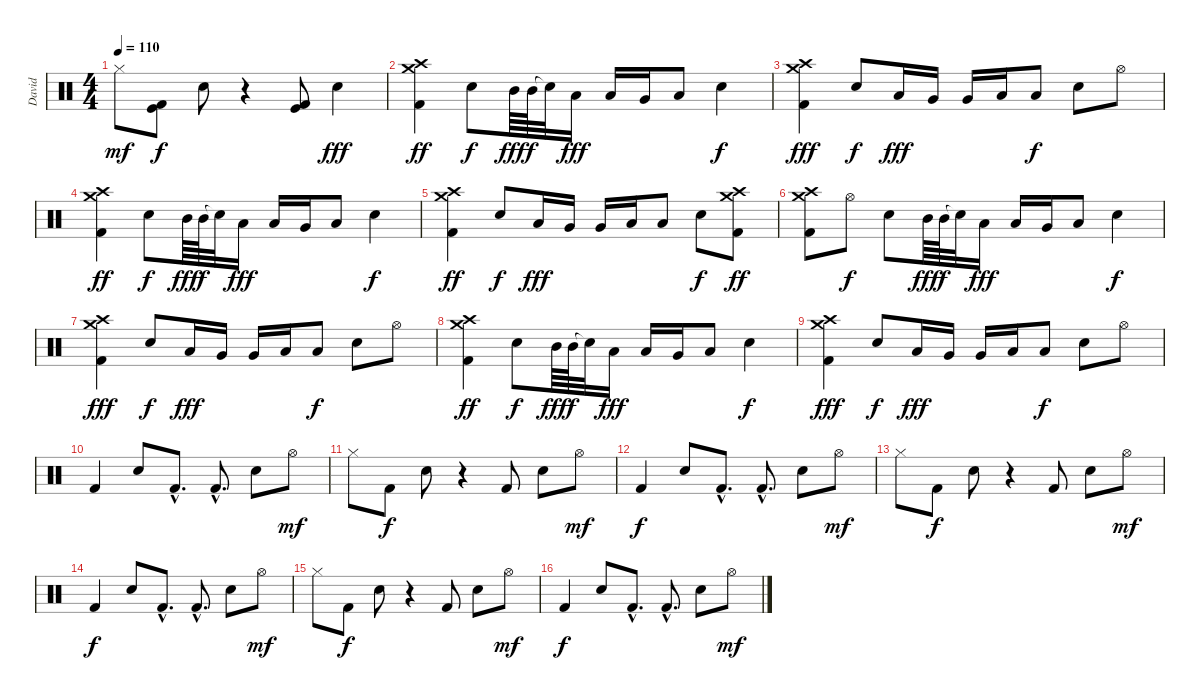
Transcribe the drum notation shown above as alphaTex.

\track ("David" "David") {instrument percussion}
\staff {score}
\articulation defaults
\ts (4 4)
\tempo 110
\clef neutral
\ks c "Hi-Hat (closed)".8{dy mf}
("Kick (hit)" "Kick (hit) 2").8{dy f} "Snare (hit) 2".8 r.4 ("Kick (hit)" "Kick (hit) 2").8 "Snare (hit) 2".4{dy fff} |
("Crash medium (hit)" "Crash high (hit)" "Kick (hit) 2").4{dy ff} "Snare (hit) 2".8{dy f} "Mid Tom (hit)".64{dy fff} "Mid Tom (hit)".64{dy f} "Snare (hit)"{t}.32 "Low Tom (hit)".16{dy fff} "Low Tom (hit)".16 "Very Low Tom (hit)".16 "Low Floor Tom (hit)".8 "Snare (hit) 2".4{dy f} |
("Crash medium (hit)" "Crash high (hit)" "Kick (hit) 2").4{dy fff} "Snare (hit) 2".8{dy f} "Low Tom (hit)".16{dy fff} "Very Low Tom (hit)".16 "Very Low Tom (hit)".16 "Low Floor Tom (hit)".16 "Low Floor Tom (hit)".8{dy f} "Snare (hit) 2".8 "Hi-Hat (open)".8 |
("Crash medium (hit)" "Crash high (hit)" "Kick (hit) 2").4{dy ff} "Snare (hit) 2".8{dy f} "Mid Tom (hit)".64{dy fff} "Mid Tom (hit)".64{dy f} "Snare (hit)"{t}.32 "Low Tom (hit)".16{dy fff} "Low Tom (hit)".16 "Very Low Tom (hit)".16 "Low Floor Tom (hit)".8 "Snare (hit) 2".4{dy f} |
("Crash medium (hit)" "Crash high (hit)" "Kick (hit) 2").4{dy ff} "Snare (hit) 2".8{dy f} "Low Tom (hit)".16{dy fff} "Very Low Tom (hit)".16 "Very Low Tom (hit)".16 "Low Floor Tom (hit)".16 "Low Floor Tom (hit)".8 "Snare (hit) 2".8{dy f} ("Crash medium (hit)" "Crash high (hit)" "Kick (hit) 2").8{dy ff} |
("Crash medium (hit)" "Crash high (hit)" "Kick (hit) 2").8 "Hi-Hat (open)".8{dy f} "Snare (hit) 2".8 "Mid Tom (hit)".64{dy fff} "Mid Tom (hit)".64{dy f} "Snare (hit)"{t}.32 "Low Tom (hit)".16{dy fff} "Low Tom (hit)".16 "Very Low Tom (hit)".16 "Low Floor Tom (hit)".8 "Snare (hit) 2".4{dy f} |
("Crash medium (hit)" "Crash high (hit)" "Kick (hit) 2").4{dy fff} "Snare (hit) 2".8{dy f} "Low Tom (hit)".16{dy fff} "Very Low Tom (hit)".16 "Very Low Tom (hit)".16 "Low Floor Tom (hit)".16 "Low Floor Tom (hit)".8{dy f} "Snare (hit) 2".8 "Hi-Hat (open)".8 |
("Crash medium (hit)" "Crash high (hit)" "Kick (hit) 2").4{dy ff} "Snare (hit) 2".8{dy f} "Mid Tom (hit)".64{dy fff} "Mid Tom (hit)".64{dy f} "Snare (hit)"{t}.32 "Low Tom (hit)".16{dy fff} "Low Tom (hit)".16 "Very Low Tom (hit)".16 "Low Floor Tom (hit)".8 "Snare (hit) 2".4{dy f} |
("Crash medium (hit)" "Crash high (hit)" "Kick (hit) 2").4{dy fff} "Snare (hit) 2".8{dy f} "Low Tom (hit)".16{dy fff} "Very Low Tom (hit)".16 "Very Low Tom (hit)".16 "Low Floor Tom (hit)".16 "Low Floor Tom (hit)".8{dy f} "Snare (hit) 2".8 "Hi-Hat (open)".8 |
"Kick (hit) 2".4 "Snare (hit) 2".8 "Kick (hit) 2"{hac}.8{d} "Kick (hit) 2"{hac}.8{d} "Snare (hit) 2".8 "Hi-Hat (open)".8{dy mf} |
"Hi-Hat (closed)".8 "Kick (hit) 2".8{dy f} "Snare (hit) 2".8 r.4 "Kick (hit) 2".8 "Snare (hit) 2".8 "Hi-Hat (open)".8{dy mf} |
"Kick (hit) 2".4{dy f} "Snare (hit) 2".8 "Kick (hit) 2"{hac}.8{d} "Kick (hit) 2"{hac}.8{d} "Snare (hit) 2".8 "Hi-Hat (open)".8{dy mf} |
"Hi-Hat (closed)".8 "Kick (hit) 2".8{dy f} "Snare (hit) 2".8 r.4 "Kick (hit) 2".8 "Snare (hit) 2".8 "Hi-Hat (open)".8{dy mf} |
"Kick (hit) 2".4{dy f} "Snare (hit) 2".8 "Kick (hit) 2"{hac}.8{d} "Kick (hit) 2"{hac}.8{d} "Snare (hit) 2".8 "Hi-Hat (open)".8{dy mf} |
"Hi-Hat (closed)".8 "Kick (hit) 2".8{dy f} "Snare (hit) 2".8 r.4 "Kick (hit) 2".8 "Snare (hit) 2".8 "Hi-Hat (open)".8{dy mf} |
"Kick (hit) 2".4{dy f} "Snare (hit) 2".8 "Kick (hit) 2"{hac}.8{d} "Kick (hit) 2"{hac}.8{d} "Snare (hit) 2".8 "Hi-Hat (open)".8{dy mf}
